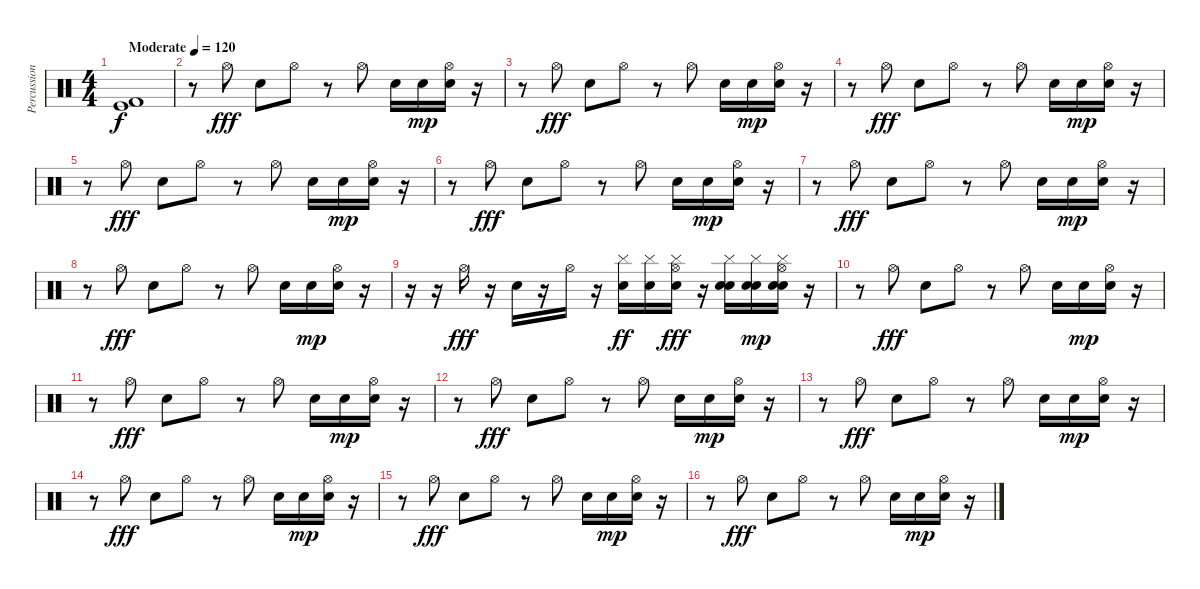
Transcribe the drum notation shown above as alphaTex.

\track ("Percussion" "Percussion") {instrument percussion}
\staff {score}
\articulation defaults
\ts (4 4)
\tempo (120 "Moderate")
\clef neutral
\ks c
("Kick (hit)" "Kick (hit) 2").1{dy f} |
r.8 "Hi-Hat (open)".8{dy fff} "Hand Clap (hit)".8 "Hi-Hat (open)".8 r.8 "Hi-Hat (open)".8 "Hand Clap (hit)".16 "Hand Clap (hit)".16{dy mp} ("Hi-Hat (open)" "Hand Clap (hit)").16 r.16 |
r.8 "Hi-Hat (open)".8{dy fff} "Hand Clap (hit)".8 "Hi-Hat (open)".8 r.8 "Hi-Hat (open)".8 "Hand Clap (hit)".16 "Hand Clap (hit)".16{dy mp} ("Hi-Hat (open)" "Hand Clap (hit)").16 r.16 |
r.8 "Hi-Hat (open)".8{dy fff} "Hand Clap (hit)".8 "Hi-Hat (open)".8 r.8 "Hi-Hat (open)".8 "Hand Clap (hit)".16 "Hand Clap (hit)".16{dy mp} ("Hi-Hat (open)" "Hand Clap (hit)").16 r.16 |
r.8 "Hi-Hat (open)".8{dy fff} "Hand Clap (hit)".8 "Hi-Hat (open)".8 r.8 "Hi-Hat (open)".8 "Hand Clap (hit)".16 "Hand Clap (hit)".16{dy mp} ("Hi-Hat (open)" "Hand Clap (hit)").16 r.16 |
r.8 "Hi-Hat (open)".8{dy fff} "Hand Clap (hit)".8 "Hi-Hat (open)".8 r.8 "Hi-Hat (open)".8 "Hand Clap (hit)".16 "Hand Clap (hit)".16{dy mp} ("Hi-Hat (open)" "Hand Clap (hit)").16 r.16 |
r.8 "Hi-Hat (open)".8{dy fff} "Hand Clap (hit)".8 "Hi-Hat (open)".8 r.8 "Hi-Hat (open)".8 "Hand Clap (hit)".16 "Hand Clap (hit)".16{dy mp} ("Hi-Hat (open)" "Hand Clap (hit)").16 r.16 |
r.8 "Hi-Hat (open)".8{dy fff} "Hand Clap (hit)".8 "Hi-Hat (open)".8 r.8 "Hi-Hat (open)".8 "Hand Clap (hit)".16 "Hand Clap (hit)".16{dy mp} ("Hi-Hat (open)" "Hand Clap (hit)").16 r.16 |
r.16 r.16 "Hi-Hat (open)".16{dy fff} r.16 "Hand Clap (hit)".16 r.16 "Hi-Hat (open)".16 r.16 ("Snare (hit)" "Cymbal (hit)").16{dy ff} ("Snare (hit)" "Cymbal (hit)").16 ("Snare (hit)" "Cymbal (hit)" "Hi-Hat (open)").16{dy fff} r.16 ("Snare (hit)" "Cymbal (hit)" "Hand Clap (hit)").16 ("Snare (hit)" "Cymbal (hit)" "Hand Clap (hit)").16{dy mp} ("Snare (hit)" "Cymbal (hit)" "Hi-Hat (open)" "Hand Clap (hit)").16 r.16 |
r.8 "Hi-Hat (open)".8{dy fff} "Hand Clap (hit)".8 "Hi-Hat (open)".8 r.8 "Hi-Hat (open)".8 "Hand Clap (hit)".16 "Hand Clap (hit)".16{dy mp} ("Hi-Hat (open)" "Hand Clap (hit)").16 r.16 |
r.8 "Hi-Hat (open)".8{dy fff} "Hand Clap (hit)".8 "Hi-Hat (open)".8 r.8 "Hi-Hat (open)".8 "Hand Clap (hit)".16 "Hand Clap (hit)".16{dy mp} ("Hi-Hat (open)" "Hand Clap (hit)").16 r.16 |
r.8 "Hi-Hat (open)".8{dy fff} "Hand Clap (hit)".8 "Hi-Hat (open)".8 r.8 "Hi-Hat (open)".8 "Hand Clap (hit)".16 "Hand Clap (hit)".16{dy mp} ("Hi-Hat (open)" "Hand Clap (hit)").16 r.16 |
r.8 "Hi-Hat (open)".8{dy fff} "Hand Clap (hit)".8 "Hi-Hat (open)".8 r.8 "Hi-Hat (open)".8 "Hand Clap (hit)".16 "Hand Clap (hit)".16{dy mp} ("Hi-Hat (open)" "Hand Clap (hit)").16 r.16 |
r.8 "Hi-Hat (open)".8{dy fff} "Hand Clap (hit)".8 "Hi-Hat (open)".8 r.8 "Hi-Hat (open)".8 "Hand Clap (hit)".16 "Hand Clap (hit)".16{dy mp} ("Hi-Hat (open)" "Hand Clap (hit)").16 r.16 |
r.8 "Hi-Hat (open)".8{dy fff} "Hand Clap (hit)".8 "Hi-Hat (open)".8 r.8 "Hi-Hat (open)".8 "Hand Clap (hit)".16 "Hand Clap (hit)".16{dy mp} ("Hi-Hat (open)" "Hand Clap (hit)").16 r.16 |
r.8 "Hi-Hat (open)".8{dy fff} "Hand Clap (hit)".8 "Hi-Hat (open)".8 r.8 "Hi-Hat (open)".8 "Hand Clap (hit)".16 "Hand Clap (hit)".16{dy mp} ("Hi-Hat (open)" "Hand Clap (hit)").16 r.16
